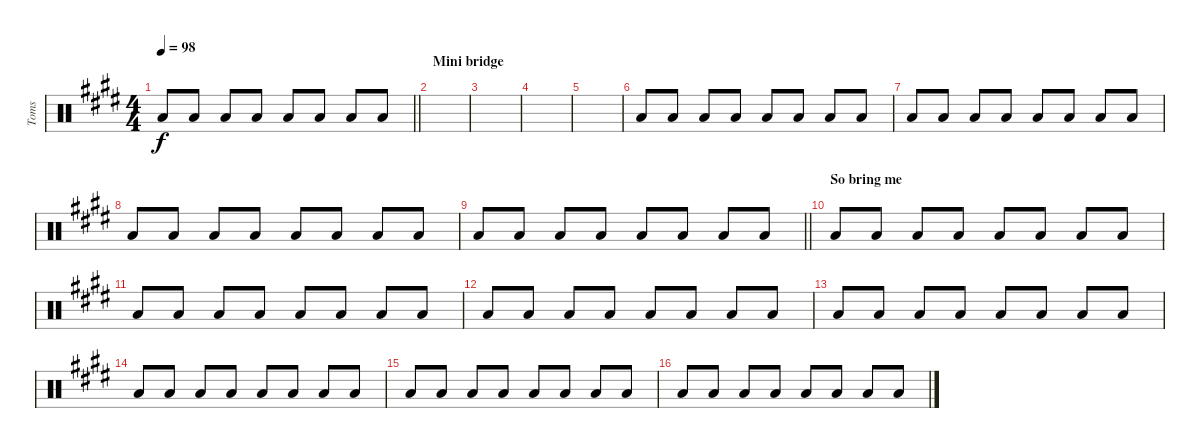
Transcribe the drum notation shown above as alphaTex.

\track ("Toms" "Toms") {instrument percussion}
\staff {score}
\articulation defaults
\ts (4 4)
\tempo 98
\clef neutral
\barLineRight lightlight
\ks c#minor "Low Tom (hit)".8{dy f} "Low Floor Tom (hit)".8 "Low Floor Tom (hit)".8 "Low Floor Tom (hit)".8 "Low Tom (hit)".8 "Low Floor Tom (hit)".8 "Low Floor Tom (hit)".8 "Low Floor Tom (hit)".8
|
\section ("" "Mini bridge")
|
|
|
|
"Low Tom (hit)".8 "Low Floor Tom (hit)".8 "Low Floor Tom (hit)".8 "Low Floor Tom (hit)".8 "Low Tom (hit)".8 "Low Floor Tom (hit)".8 "Low Floor Tom (hit)".8 "Low Floor Tom (hit)".8 |
"Low Tom (hit)".8 "Low Floor Tom (hit)".8 "Low Floor Tom (hit)".8 "Low Floor Tom (hit)".8 "Low Tom (hit)".8 "Low Floor Tom (hit)".8 "Low Floor Tom (hit)".8 "Low Floor Tom (hit)".8 |
"Low Tom (hit)".8 "Low Floor Tom (hit)".8 "Low Floor Tom (hit)".8 "Low Floor Tom (hit)".8 "Low Tom (hit)".8 "Low Floor Tom (hit)".8 "Low Floor Tom (hit)".8 "Low Floor Tom (hit)".8 |
\barLineRight lightlight "Low Tom (hit)".8 "Low Floor Tom (hit)".8 "Low Floor Tom (hit)".8 "Low Floor Tom (hit)".8 "Low Tom (hit)".8 "Low Floor Tom (hit)".8 "Low Floor Tom (hit)".8 "Low Floor Tom (hit)".8
|
\section ("" "So bring me")
"Low Tom (hit)".8 "Low Floor Tom (hit)".8 "Low Floor Tom (hit)".8 "Low Floor Tom (hit)".8 "Low Tom (hit)".8 "Low Floor Tom (hit)".8 "Low Floor Tom (hit)".8 "Low Floor Tom (hit)".8 |
"Low Tom (hit)".8 "Low Floor Tom (hit)".8 "Low Floor Tom (hit)".8 "Low Floor Tom (hit)".8 "Low Tom (hit)".8 "Low Floor Tom (hit)".8 "Low Floor Tom (hit)".8 "Low Floor Tom (hit)".8 |
"Low Tom (hit)".8 "Low Floor Tom (hit)".8 "Low Floor Tom (hit)".8 "Low Floor Tom (hit)".8 "Low Tom (hit)".8 "Low Floor Tom (hit)".8 "Low Floor Tom (hit)".8 "Low Floor Tom (hit)".8 |
"Low Tom (hit)".8 "Low Floor Tom (hit)".8 "Low Floor Tom (hit)".8 "Low Floor Tom (hit)".8 "Low Tom (hit)".8 "Low Floor Tom (hit)".8 "Low Floor Tom (hit)".8 "Low Floor Tom (hit)".8 |
"Low Tom (hit)".8 "Low Floor Tom (hit)".8 "Low Floor Tom (hit)".8 "Low Floor Tom (hit)".8 "Low Tom (hit)".8 "Low Floor Tom (hit)".8 "Low Floor Tom (hit)".8 "Low Floor Tom (hit)".8 |
"Low Tom (hit)".8 "Low Floor Tom (hit)".8 "Low Floor Tom (hit)".8 "Low Floor Tom (hit)".8 "Low Tom (hit)".8 "Low Floor Tom (hit)".8 "Low Floor Tom (hit)".8 "Low Floor Tom (hit)".8 |
"Low Tom (hit)".8 "Low Floor Tom (hit)".8 "Low Floor Tom (hit)".8 "Low Floor Tom (hit)".8 "Low Tom (hit)".8 "Low Floor Tom (hit)".8 "Low Floor Tom (hit)".8 "Low Floor Tom (hit)".8
